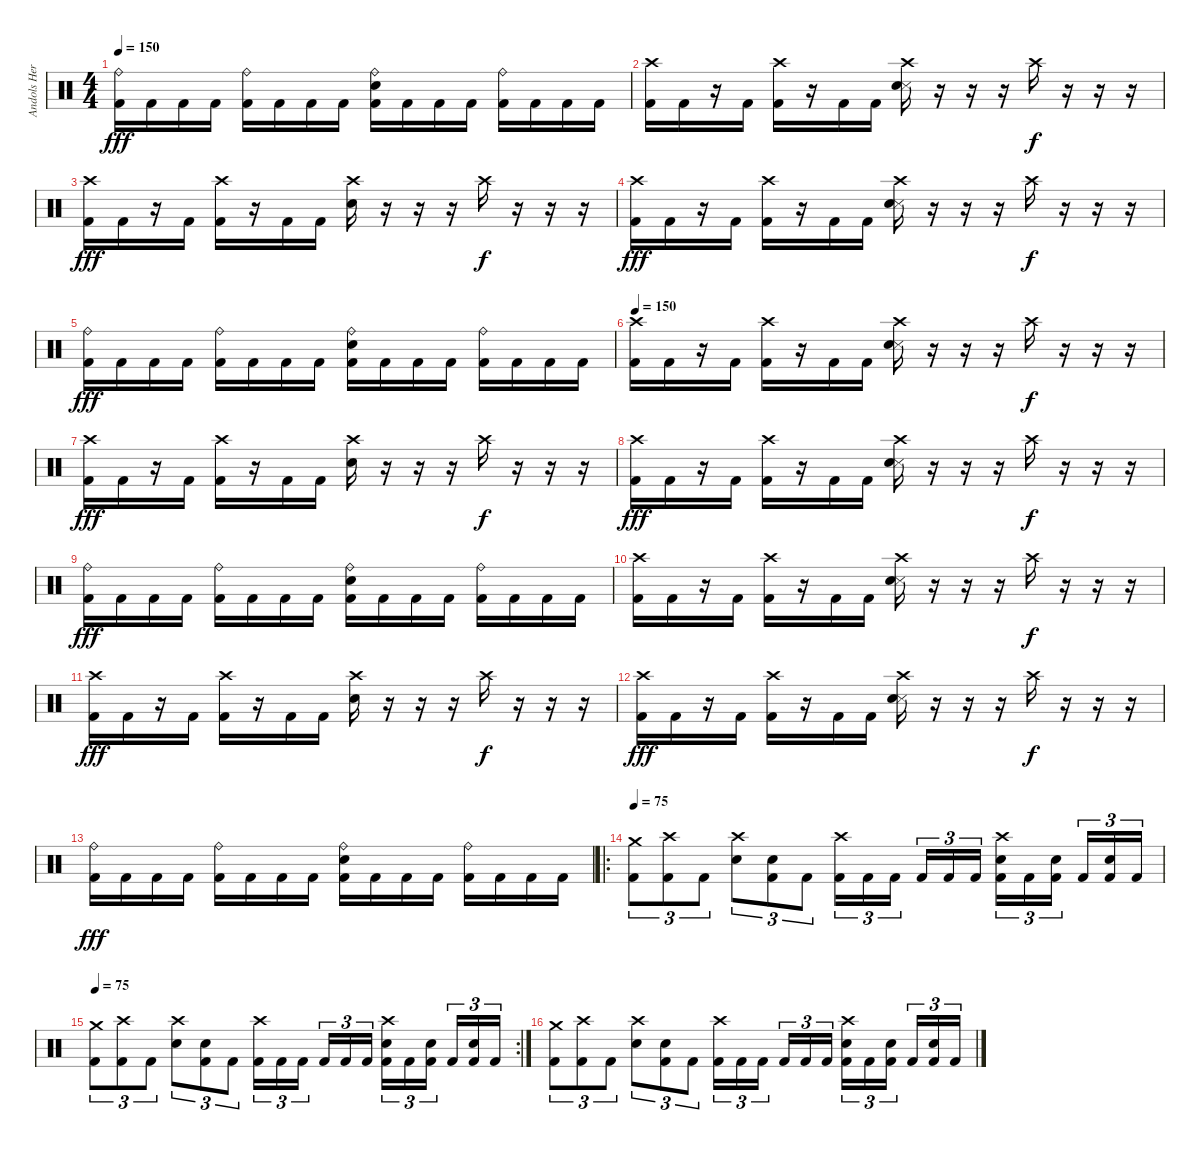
\track ("Andols Herrick" "Andols Her") {instrument percussion}
\staff {score}
\articulation defaults
\ts (4 4)
\tempo 150
\clef neutral
\ks c
("Ride (bell)" "Kick (hit) 2").16{dy fff} "Kick (hit) 2".16 "Kick (hit) 2".16 "Kick (hit) 2".16 ("Ride (bell)" "Kick (hit) 2").16 "Kick (hit) 2".16 "Kick (hit) 2".16 "Kick (hit) 2".16 ("Ride (bell)" "Snare (hit) 2" "Kick (hit) 2").16 "Kick (hit) 2".16 "Kick (hit) 2".16 "Kick (hit) 2".16 ("Ride (bell)" "Kick (hit) 2").16 "Kick (hit) 2".16 "Kick (hit) 2".16 "Kick (hit) 2".16 |
("Crash high (hit)" "Kick (hit) 2").16 "Kick (hit) 2".16 r.16 "Kick (hit) 2".16 ("Crash high (hit)" "Kick (hit) 2").16 r.16 "Kick (hit) 2".16 "Kick (hit) 2".16 ("Crash high (hit)" "Snare (side stick) 3" "Snare (hit) 2").16 r.16 r.16 r.16 "Crash high (hit)".16{dy f} r.16 r.16 r.16 |
("Crash high (hit)" "Kick (hit) 2").16{dy fff} "Kick (hit) 2".16 r.16 "Kick (hit) 2".16 ("Crash high (hit)" "Kick (hit) 2").16 r.16 "Kick (hit) 2".16 "Kick (hit) 2".16 ("Crash high (hit)" "Snare (hit) 2").16 r.16 r.16 r.16 "Crash high (hit)".16{dy f} r.16 r.16 r.16 |
("Crash high (hit)" "Kick (hit) 2").16{dy fff} "Kick (hit) 2".16 r.16 "Kick (hit) 2".16 ("Crash high (hit)" "Kick (hit) 2").16 r.16 "Kick (hit) 2".16 "Kick (hit) 2".16 ("Crash high (hit)" "Snare (side stick) 3" "Snare (hit) 2").16 r.16 r.16 r.16 "Crash high (hit)".16{dy f} r.16 r.16 r.16 |
("Ride (bell)" "Kick (hit) 2").16{dy fff} "Kick (hit) 2".16 "Kick (hit) 2".16 "Kick (hit) 2".16 ("Ride (bell)" "Kick (hit) 2").16 "Kick (hit) 2".16 "Kick (hit) 2".16 "Kick (hit) 2".16 ("Ride (bell)" "Snare (hit) 2" "Kick (hit) 2").16 "Kick (hit) 2".16 "Kick (hit) 2".16 "Kick (hit) 2".16 ("Ride (bell)" "Kick (hit) 2").16 "Kick (hit) 2".16 "Kick (hit) 2".16 "Kick (hit) 2".16 |
\tempo 150
("Crash high (hit)" "Kick (hit) 2").16 "Kick (hit) 2".16 r.16 "Kick (hit) 2".16 ("Crash high (hit)" "Kick (hit) 2").16 r.16 "Kick (hit) 2".16 "Kick (hit) 2".16 ("Crash high (hit)" "Snare (side stick) 3" "Snare (hit) 2").16 r.16 r.16 r.16 "Crash high (hit)".16{dy f} r.16 r.16 r.16 |
("Crash high (hit)" "Kick (hit) 2").16{dy fff} "Kick (hit) 2".16 r.16 "Kick (hit) 2".16 ("Crash high (hit)" "Kick (hit) 2").16 r.16 "Kick (hit) 2".16 "Kick (hit) 2".16 ("Crash high (hit)" "Snare (hit) 2").16 r.16 r.16 r.16 "Crash high (hit)".16{dy f} r.16 r.16 r.16 |
("Crash high (hit)" "Kick (hit) 2").16{dy fff} "Kick (hit) 2".16 r.16 "Kick (hit) 2".16 ("Crash high (hit)" "Kick (hit) 2").16 r.16 "Kick (hit) 2".16 "Kick (hit) 2".16 ("Crash high (hit)" "Snare (side stick) 3" "Snare (hit) 2").16 r.16 r.16 r.16 "Crash high (hit)".16{dy f} r.16 r.16 r.16 |
("Ride (bell)" "Kick (hit) 2").16{dy fff} "Kick (hit) 2".16 "Kick (hit) 2".16 "Kick (hit) 2".16 ("Ride (bell)" "Kick (hit) 2").16 "Kick (hit) 2".16 "Kick (hit) 2".16 "Kick (hit) 2".16 ("Ride (bell)" "Snare (hit) 2" "Kick (hit) 2").16 "Kick (hit) 2".16 "Kick (hit) 2".16 "Kick (hit) 2".16 ("Ride (bell)" "Kick (hit) 2").16 "Kick (hit) 2".16 "Kick (hit) 2".16 "Kick (hit) 2".16 |
("Crash high (hit)" "Kick (hit) 2").16 "Kick (hit) 2".16 r.16 "Kick (hit) 2".16 ("Crash high (hit)" "Kick (hit) 2").16 r.16 "Kick (hit) 2".16 "Kick (hit) 2".16 ("Crash high (hit)" "Snare (side stick) 3" "Snare (hit) 2").16 r.16 r.16 r.16 "Crash high (hit)".16{dy f} r.16 r.16 r.16 |
("Crash high (hit)" "Kick (hit) 2").16{dy fff} "Kick (hit) 2".16 r.16 "Kick (hit) 2".16 ("Crash high (hit)" "Kick (hit) 2").16 r.16 "Kick (hit) 2".16 "Kick (hit) 2".16 ("Crash high (hit)" "Snare (hit) 2").16 r.16 r.16 r.16 "Crash high (hit)".16{dy f} r.16 r.16 r.16 |
("Crash high (hit)" "Kick (hit) 2").16{dy fff} "Kick (hit) 2".16 r.16 "Kick (hit) 2".16 ("Crash high (hit)" "Kick (hit) 2").16 r.16 "Kick (hit) 2".16 "Kick (hit) 2".16 ("Crash high (hit)" "Snare (side stick) 3" "Snare (hit) 2").16 r.16 r.16 r.16 "Crash high (hit)".16{dy f} r.16 r.16 r.16 |
("Ride (bell)" "Kick (hit) 2").16{dy fff} "Kick (hit) 2".16 "Kick (hit) 2".16 "Kick (hit) 2".16 ("Ride (bell)" "Kick (hit) 2").16 "Kick (hit) 2".16 "Kick (hit) 2".16 "Kick (hit) 2".16 ("Ride (bell)" "Snare (hit) 2" "Kick (hit) 2").16 "Kick (hit) 2".16 "Kick (hit) 2".16 "Kick (hit) 2".16 ("Ride (bell)" "Kick (hit) 2").16 "Kick (hit) 2".16 "Kick (hit) 2".16 "Kick (hit) 2".16 |
\ro
\tempo 75
("Crash medium (hit)" "Kick (hit) 2").8{tu (3 2)} ("Crash high (hit)" "Kick (hit) 2").8{tu (3 2)} "Kick (hit) 2".8{tu (3 2)} ("Crash high (hit)" "Snare (hit) 2").8{tu (3 2)} ("Snare (hit) 2" "Kick (hit) 2").8{tu (3 2)} "Kick (hit) 2".8{tu (3 2)} ("Crash high (hit)" "Kick (hit) 2").16{tu (3 2)} "Kick (hit) 2".16{tu (3 2)} "Kick (hit) 2".16{tu (3 2) beam splitsecondary} "Kick (hit) 2".16{tu (3 2)} "Kick (hit) 2".16{tu (3 2)} "Kick (hit) 2".16{tu (3 2)} ("Crash high (hit)" "Snare (hit) 2" "Kick (hit) 2").16{tu (3 2)} "Kick (hit) 2".16{tu (3 2)} ("Snare (hit) 2" "Kick (hit) 2").16{tu (3 2) beam splitsecondary} "Kick (hit) 2".16{tu (3 2)} ("Snare (hit) 2" "Kick (hit) 2").16{tu (3 2)} "Kick (hit) 2".16{tu (3 2)} |
\rc 2
\tempo 75
("Crash medium (hit)" "Kick (hit) 2").8{tu (3 2)} ("Crash high (hit)" "Kick (hit) 2").8{tu (3 2)} "Kick (hit) 2".8{tu (3 2)} ("Crash high (hit)" "Snare (hit) 2").8{tu (3 2)} ("Snare (hit) 2" "Kick (hit) 2").8{tu (3 2)} "Kick (hit) 2".8{tu (3 2)} ("Crash high (hit)" "Kick (hit) 2").16{tu (3 2)} "Kick (hit) 2".16{tu (3 2)} "Kick (hit) 2".16{tu (3 2) beam splitsecondary} "Kick (hit) 2".16{tu (3 2)} "Kick (hit) 2".16{tu (3 2)} "Kick (hit) 2".16{tu (3 2)} ("Crash high (hit)" "Snare (hit) 2" "Kick (hit) 2").16{tu (3 2)} "Kick (hit) 2".16{tu (3 2)} ("Snare (hit) 2" "Kick (hit) 2").16{tu (3 2) beam splitsecondary} "Kick (hit) 2".16{tu (3 2)} ("Snare (hit) 2" "Kick (hit) 2").16{tu (3 2)} "Kick (hit) 2".16{tu (3 2)} |
("Crash medium (hit)" "Kick (hit) 2").8{tu (3 2)} ("Crash high (hit)" "Kick (hit) 2").8{tu (3 2)} "Kick (hit) 2".8{tu (3 2)} ("Crash high (hit)" "Snare (hit) 2").8{tu (3 2)} ("Snare (hit) 2" "Kick (hit) 2").8{tu (3 2)} "Kick (hit) 2".8{tu (3 2)} ("Crash high (hit)" "Kick (hit) 2").16{tu (3 2)} "Kick (hit) 2".16{tu (3 2)} "Kick (hit) 2".16{tu (3 2) beam splitsecondary} "Kick (hit) 2".16{tu (3 2)} "Kick (hit) 2".16{tu (3 2)} "Kick (hit) 2".16{tu (3 2)} ("Crash high (hit)" "Snare (hit) 2" "Kick (hit) 2").16{tu (3 2)} "Kick (hit) 2".16{tu (3 2)} ("Snare (hit) 2" "Kick (hit) 2").16{tu (3 2) beam splitsecondary} "Kick (hit) 2".16{tu (3 2)} ("Snare (hit) 2" "Kick (hit) 2").16{tu (3 2)} "Kick (hit) 2".16{tu (3 2)}
